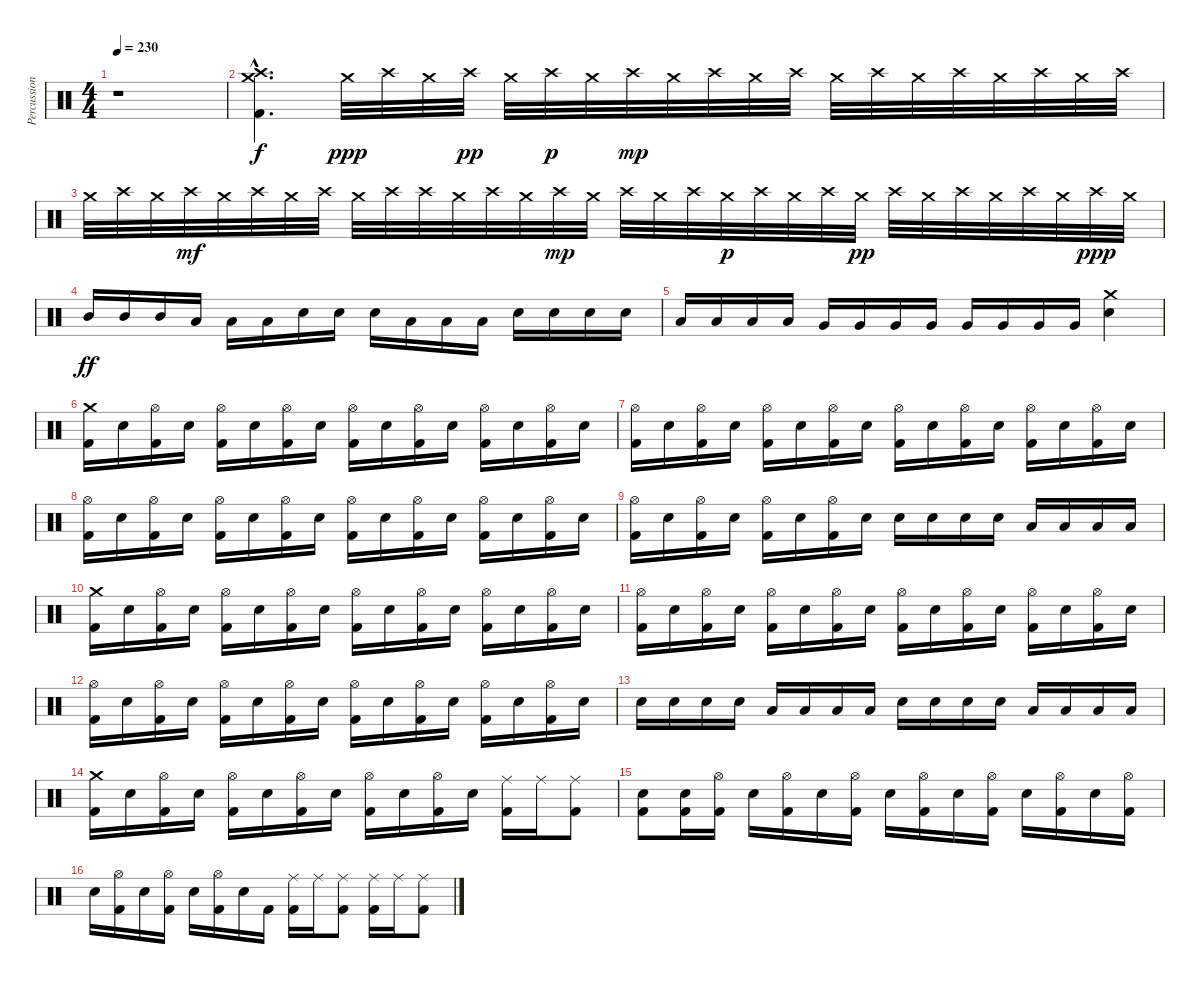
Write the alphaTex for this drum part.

\track ("Percussion" "Percussion") {instrument percussion}
\staff {score}
\articulation defaults
\ts (4 4)
\tempo 230
\clef neutral
\ks c
r.1{dy ff} |
("Crash high (hit)"{hac} "Crash medium (hit)"{hac} "Kick (hit) 2"{hac}).4{d dy f} "Crash medium (hit)".32{dy ppp} "Crash high (hit)".32 "Crash medium (hit)".32 "Crash high (hit)".32{dy pp} "Crash medium (hit)".32 "Crash high (hit)".32{dy p} "Crash medium (hit)".32 "Crash high (hit)".32{dy mp} "Crash medium (hit)".32 "Crash high (hit)".32 "Crash medium (hit)".32 "Crash high (hit)".32 "Crash medium (hit)".32 "Crash high (hit)".32 "Crash medium (hit)".32 "Crash high (hit)".32 "Crash medium (hit)".32 "Crash high (hit)".32 "Crash medium (hit)".32 "Crash high (hit)".32 |
"Crash medium (hit)".32 "Crash high (hit)".32 "Crash medium (hit)".32 "Crash high (hit)".32{dy mf} "Crash medium (hit)".32 "Crash high (hit)".32 "Crash medium (hit)".32 "Crash high (hit)".32 "Crash medium (hit)".32 "Crash high (hit)".32 "Crash high (hit)".32 "Crash medium (hit)".32 "Crash high (hit)".32 "Crash medium (hit)".32 "Crash high (hit)".32{dy mp} "Crash medium (hit)".32 "Crash high (hit)".32 "Crash medium (hit)".32 "Crash high (hit)".32 "Crash medium (hit)".32{dy p} "Crash high (hit)".32 "Crash medium (hit)".32 "Crash high (hit)".32 "Crash medium (hit)".32{dy pp} "Crash high (hit)".32 "Crash medium (hit)".32 "Crash high (hit)".32 "Crash medium (hit)".32 "Crash high (hit)".32 "Crash medium (hit)".32 "Crash high (hit)".32{dy ppp} "Crash medium (hit)".32 |
"Mid Tom (hit)".16{dy ff} "Mid Tom (hit)".16 "Mid Tom (hit)".16 "Low Tom (hit)".16 "Low Tom (hit)".16 "Low Tom (hit)".16 "Electric Snare (hit)".16 "Electric Snare (hit)".16 "Electric Snare (hit)".16 "Low Tom (hit)".16 "Low Tom (hit)".16 "Low Tom (hit)".16 "Electric Snare (hit)".16 "Electric Snare (hit)".16 "Electric Snare (hit)".16 "Electric Snare (hit)".16 |
"Low Tom (hit)".16 "Low Tom (hit)".16 "Low Tom (hit)".16 "Low Tom (hit)".16 "Very Low Tom (hit)".16 "Very Low Tom (hit)".16 "Very Low Tom (hit)".16 "Very Low Tom (hit)".16 "Very Low Tom (hit)".16 "Very Low Tom (hit)".16 "Very Low Tom (hit)".16 "Very Low Tom (hit)".16 ("Electric Snare (hit)" "Crash medium (hit)").4 |
("Kick (hit) 2" "Crash medium (hit)").16 "Electric Snare (hit)".16 ("Kick (hit) 2" "Hi-Hat (open)").16 "Electric Snare (hit)".16 ("Kick (hit) 2" "Hi-Hat (open)").16 "Electric Snare (hit)".16 ("Kick (hit) 2" "Hi-Hat (open)").16 "Electric Snare (hit)".16 ("Kick (hit) 2" "Hi-Hat (open)").16 "Electric Snare (hit)".16 ("Kick (hit) 2" "Hi-Hat (open)").16 "Electric Snare (hit)".16 ("Kick (hit) 2" "Hi-Hat (open)").16 "Electric Snare (hit)".16 ("Kick (hit) 2" "Hi-Hat (open)").16 "Electric Snare (hit)".16 |
("Kick (hit) 2" "Hi-Hat (open)").16 "Electric Snare (hit)".16 ("Kick (hit) 2" "Hi-Hat (open)").16 "Electric Snare (hit)".16 ("Kick (hit) 2" "Hi-Hat (open)").16 "Electric Snare (hit)".16 ("Kick (hit) 2" "Hi-Hat (open)").16 "Electric Snare (hit)".16 ("Kick (hit) 2" "Hi-Hat (open)").16 "Electric Snare (hit)".16 ("Kick (hit) 2" "Hi-Hat (open)").16 "Electric Snare (hit)".16 ("Kick (hit) 2" "Hi-Hat (open)").16 "Electric Snare (hit)".16 ("Kick (hit) 2" "Hi-Hat (open)").16 "Electric Snare (hit)".16 |
("Kick (hit) 2" "Hi-Hat (open)").16 "Electric Snare (hit)".16 ("Kick (hit) 2" "Hi-Hat (open)").16 "Electric Snare (hit)".16 ("Kick (hit) 2" "Hi-Hat (open)").16 "Electric Snare (hit)".16 ("Kick (hit) 2" "Hi-Hat (open)").16 "Electric Snare (hit)".16 ("Kick (hit) 2" "Hi-Hat (open)").16 "Electric Snare (hit)".16 ("Kick (hit) 2" "Hi-Hat (open)").16 "Electric Snare (hit)".16 ("Kick (hit) 2" "Hi-Hat (open)").16 "Electric Snare (hit)".16 ("Kick (hit) 2" "Hi-Hat (open)").16 "Electric Snare (hit)".16 |
("Kick (hit) 2" "Hi-Hat (open)").16 "Electric Snare (hit)".16 ("Kick (hit) 2" "Hi-Hat (open)").16 "Electric Snare (hit)".16 ("Kick (hit) 2" "Hi-Hat (open)").16 "Electric Snare (hit)".16 ("Kick (hit) 2" "Hi-Hat (open)").16 "Electric Snare (hit)".16 "Electric Snare (hit)".16 "Electric Snare (hit)".16 "Electric Snare (hit)".16 "Electric Snare (hit)".16 "Low Tom (hit)".16 "Low Tom (hit)".16 "Low Tom (hit)".16 "Low Tom (hit)".16 |
("Kick (hit) 2" "Crash medium (hit)").16 "Electric Snare (hit)".16 ("Kick (hit) 2" "Hi-Hat (open)").16 "Electric Snare (hit)".16 ("Kick (hit) 2" "Hi-Hat (open)").16 "Electric Snare (hit)".16 ("Kick (hit) 2" "Hi-Hat (open)").16 "Electric Snare (hit)".16 ("Kick (hit) 2" "Hi-Hat (open)").16 "Electric Snare (hit)".16 ("Kick (hit) 2" "Hi-Hat (open)").16 "Electric Snare (hit)".16 ("Kick (hit) 2" "Hi-Hat (open)").16 "Electric Snare (hit)".16 ("Kick (hit) 2" "Hi-Hat (open)").16 "Electric Snare (hit)".16 |
("Kick (hit) 2" "Hi-Hat (open)").16 "Electric Snare (hit)".16 ("Kick (hit) 2" "Hi-Hat (open)").16 "Electric Snare (hit)".16 ("Kick (hit) 2" "Hi-Hat (open)").16 "Electric Snare (hit)".16 ("Kick (hit) 2" "Hi-Hat (open)").16 "Electric Snare (hit)".16 ("Kick (hit) 2" "Hi-Hat (open)").16 "Electric Snare (hit)".16 ("Kick (hit) 2" "Hi-Hat (open)").16 "Electric Snare (hit)".16 ("Kick (hit) 2" "Hi-Hat (open)").16 "Electric Snare (hit)".16 ("Kick (hit) 2" "Hi-Hat (open)").16 "Electric Snare (hit)".16 |
("Kick (hit) 2" "Hi-Hat (open)").16 "Electric Snare (hit)".16 ("Kick (hit) 2" "Hi-Hat (open)").16 "Electric Snare (hit)".16 ("Kick (hit) 2" "Hi-Hat (open)").16 "Electric Snare (hit)".16 ("Kick (hit) 2" "Hi-Hat (open)").16 "Electric Snare (hit)".16 ("Kick (hit) 2" "Hi-Hat (open)").16 "Electric Snare (hit)".16 ("Kick (hit) 2" "Hi-Hat (open)").16 "Electric Snare (hit)".16 ("Kick (hit) 2" "Hi-Hat (open)").16 "Electric Snare (hit)".16 ("Kick (hit) 2" "Hi-Hat (open)").16 "Electric Snare (hit)".16 |
"Electric Snare (hit)".16 "Electric Snare (hit)".16 "Electric Snare (hit)".16 "Electric Snare (hit)".16 "Low Tom (hit)".16 "Low Tom (hit)".16 "Low Tom (hit)".16 "Low Tom (hit)".16 "Electric Snare (hit)".16 "Electric Snare (hit)".16 "Electric Snare (hit)".16 "Electric Snare (hit)".16 "Low Tom (hit)".16 "Low Tom (hit)".16 "Low Tom (hit)".16 "Low Tom (hit)".16 |
("Kick (hit) 2" "Crash medium (hit)").16 "Electric Snare (hit)".16 ("Kick (hit) 2" "Hi-Hat (open)").16 "Electric Snare (hit)".16 ("Kick (hit) 2" "Hi-Hat (open)").16 "Electric Snare (hit)".16 ("Kick (hit) 2" "Hi-Hat (open)").16 "Electric Snare (hit)".16 ("Kick (hit) 2" "Hi-Hat (open)").16 "Electric Snare (hit)".16 ("Kick (hit) 2" "Hi-Hat (open)").16 "Electric Snare (hit)".16 ("Kick (hit) 2" "Ride (middle)").16 "Ride (middle)".16 ("Kick (hit) 2" "Ride (middle)").8 |
("Kick (hit) 2" "Electric Snare (hit)").8 ("Kick (hit) 2" "Electric Snare (hit)").16 ("Kick (hit) 2" "Hi-Hat (open)").16 "Electric Snare (hit)".16 ("Kick (hit) 2" "Hi-Hat (open)").16 "Electric Snare (hit)".16 ("Kick (hit) 2" "Hi-Hat (open)").16 "Electric Snare (hit)".16 ("Kick (hit) 2" "Hi-Hat (open)").16 "Electric Snare (hit)".16 ("Kick (hit) 2" "Hi-Hat (open)").16 "Electric Snare (hit)".16 ("Kick (hit) 2" "Hi-Hat (open)").16 "Electric Snare (hit)".16 ("Kick (hit) 2" "Hi-Hat (open)").16 |
"Electric Snare (hit)".16 ("Kick (hit) 2" "Hi-Hat (open)").16 "Electric Snare (hit)".16 ("Kick (hit) 2" "Hi-Hat (open)").16 "Electric Snare (hit)".16 ("Kick (hit) 2" "Hi-Hat (open)").16 "Electric Snare (hit)".16 "Kick (hit) 2".16 ("Kick (hit) 2" "Ride (middle)").16 "Ride (middle)".16 ("Kick (hit) 2" "Ride (middle)").8 ("Kick (hit) 2" "Ride (middle)").16 "Ride (middle)".16 ("Kick (hit) 2" "Ride (middle)").8
